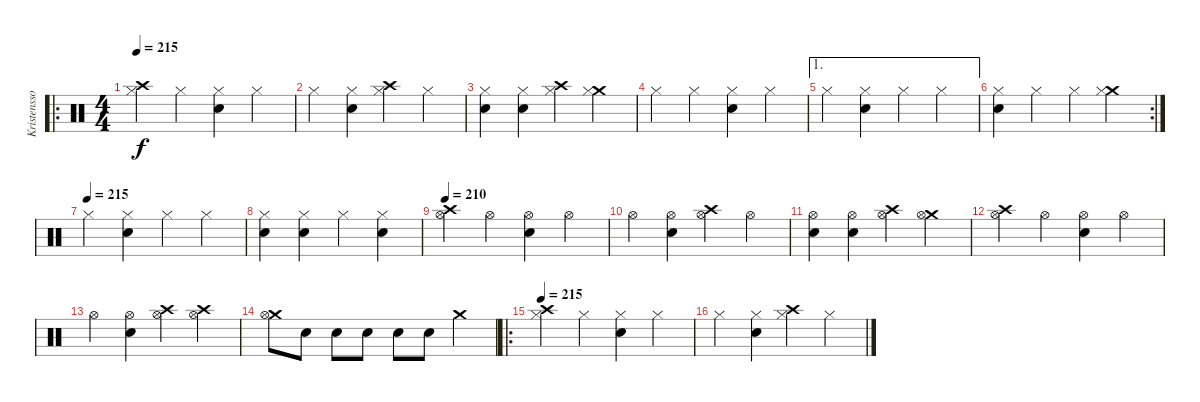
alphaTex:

\track ("Kristensson" "Kristensso") {instrument percussion}
\staff {score}
\articulation defaults
\ro
\ts (4 4)
\tempo 215
\clef neutral
\ks c
("Crash high (hit)" "Hi-Hat (closed)").4{dy f} "Hi-Hat (closed)".4 ("Snare (hit) 2" "Hi-Hat (closed)").4 "Hi-Hat (closed)".4 |
"Hi-Hat (closed)".4 ("Snare (hit) 2" "Hi-Hat (closed)").4 ("Crash high (hit)" "Hi-Hat (closed)").4 "Hi-Hat (closed)".4 |
("Snare (hit) 2" "Hi-Hat (closed)").4 ("Snare (hit) 2" "Hi-Hat (closed)").4 ("Crash high (hit)" "Hi-Hat (closed)").4 ("Crash medium (hit)" "Hi-Hat (closed)").4 |
"Hi-Hat (closed)".4 "Hi-Hat (closed)".4 ("Snare (hit) 2" "Hi-Hat (closed)").4 "Hi-Hat (closed)".4 |
\ae 1 "Hi-Hat (closed)".4
("Snare (hit) 2" "Hi-Hat (closed)").4 "Hi-Hat (closed)".4 "Hi-Hat (closed)".4 |
\rc 2
("Snare (hit) 2" "Hi-Hat (closed)").4 "Hi-Hat (closed)".4 "Hi-Hat (closed)".4 ("Crash medium (hit)" "Hi-Hat (closed)").4 |
\tempo (215)
"Hi-Hat (closed)".4 ("Snare (hit) 2" "Hi-Hat (closed)").4 "Hi-Hat (closed)".4 "Hi-Hat (closed)".4 |
("Snare (hit) 2" "Hi-Hat (closed)").4 ("Snare (hit) 2" "Hi-Hat (closed)").4 "Hi-Hat (closed)".4 ("Snare (hit) 2" "Hi-Hat (closed)").4 |
\tempo 210
("Crash high (hit)" "Hi-Hat (open)").4 "Hi-Hat (open)".4 ("Snare (hit) 2" "Hi-Hat (open)").4 "Hi-Hat (open)".4 |
"Hi-Hat (open)".4 ("Snare (hit) 2" "Hi-Hat (open)").4 ("Crash high (hit)" "Hi-Hat (open)").4 "Hi-Hat (open)".4 |
("Snare (hit) 2" "Hi-Hat (open)").4 ("Snare (hit) 2" "Hi-Hat (open)").4 ("Crash high (hit)" "Hi-Hat (open)").4 ("Crash medium (hit)" "Hi-Hat (open)").4 |
("Crash high (hit)" "Hi-Hat (open)").4 "Hi-Hat (open)".4 ("Snare (hit) 2" "Hi-Hat (open)").4 "Hi-Hat (open)".4 |
"Hi-Hat (open)".4 ("Snare (hit) 2" "Hi-Hat (open)").4 ("Crash high (hit)" "Hi-Hat (open)").4 ("Crash high (hit)" "Hi-Hat (open)").4 |
("Crash medium (hit)" "Hi-Hat (open)").8 "Snare (hit) 2".8 "Snare (hit) 2".8 "Snare (hit) 2".8 "Snare (hit) 2".8 "Snare (hit) 2".8 "Crash medium (hit)".4 |
\ro
\tempo 215
("Crash high (hit)" "Hi-Hat (closed)").4 "Hi-Hat (closed)".4 ("Snare (hit) 2" "Hi-Hat (closed)").4 "Hi-Hat (closed)".4 |
"Hi-Hat (closed)".4 ("Snare (hit) 2" "Hi-Hat (closed)").4 ("Crash high (hit)" "Hi-Hat (closed)").4 "Hi-Hat (closed)".4
